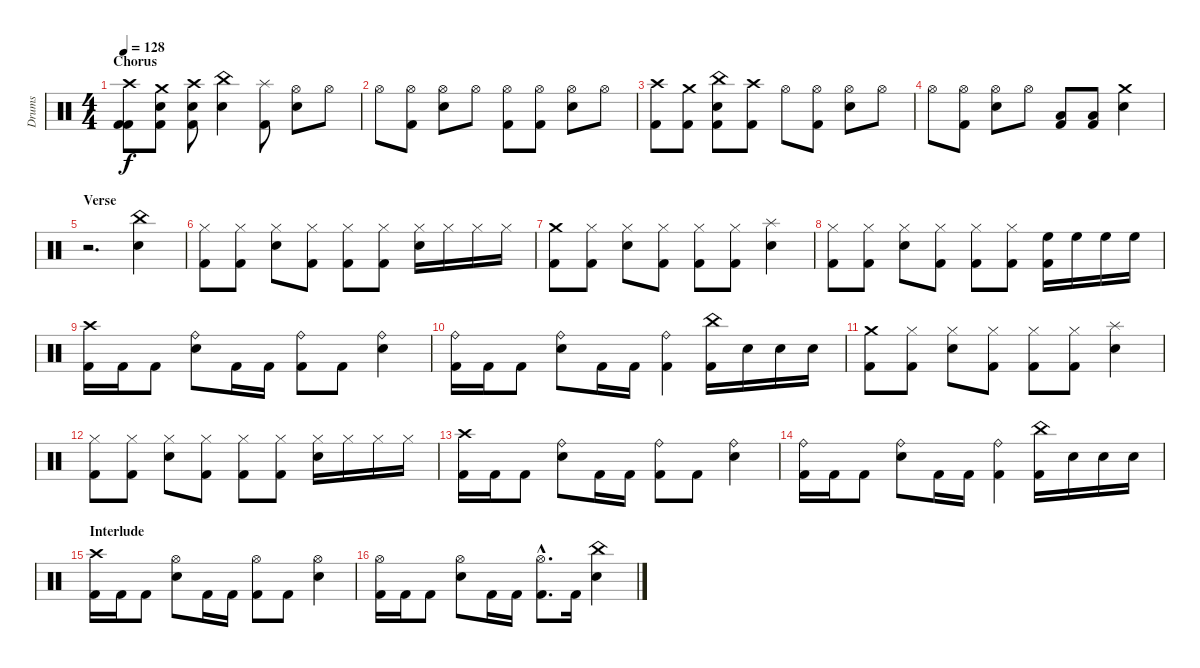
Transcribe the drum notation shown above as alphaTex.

\track ("Drums" "Drums") {instrument percussion}
\staff {score}
\articulation defaults
\ts (4 4)
\section ("" "Chorus")
\tempo 128
\clef neutral
\ks c
("Crash high (hit)" "Kick (hit) 2" "Kick (hit) 2").8{dy f} ("Crash medium (hit)" "Snare (hit) 2" "Kick (hit) 2").8 ("Crash high (hit)" "Snare (hit) 2" "Kick (hit) 2").8 ("China (hit)" "Snare (hit) 2").4 ("Splash (hit)" "Kick (hit) 2").8 ("Hi-Hat (open)" "Snare (hit) 2").8 "Hi-Hat (open)".8 |
"Hi-Hat (open)".8 ("Hi-Hat (open)" "Kick (hit) 2").8 ("Hi-Hat (open)" "Snare (hit) 2").8 "Hi-Hat (open)".8 ("Hi-Hat (open)" "Kick (hit) 2").8 ("Hi-Hat (open)" "Kick (hit) 2").8 ("Hi-Hat (open)" "Snare (hit) 2").8 "Hi-Hat (open)".8 |
("Crash high (hit)" "Kick (hit) 2").8 ("Crash medium (hit)" "Kick (hit) 2").8 ("China (hit)" "Snare (hit) 2" "Kick (hit) 2").8 ("Crash high (hit)" "Kick (hit) 2").8 "Hi-Hat (open)".8 ("Hi-Hat (open)" "Kick (hit) 2").8 ("Hi-Hat (open)" "Snare (hit) 2").8 "Hi-Hat (open)".8 |
"Hi-Hat (open)".8 ("Hi-Hat (open)" "Kick (hit) 2").8 ("Hi-Hat (open)" "Snare (hit) 2").8 "Hi-Hat (open)".8 ("Low Tom (hit)" "Kick (hit) 2").8 ("Low Floor Tom (hit)" "Kick (hit) 2").8 ("Crash medium (hit)" "Snare (hit) 2").4 |
\section ("" "Verse")
r.2{d} ("China (hit)" "Snare (hit) 2").4 |
("Hi-Hat (closed)" "Kick (hit) 2").8 ("Hi-Hat (closed)" "Kick (hit) 2").8 ("Hi-Hat (closed)" "Snare (hit) 2").8 ("Hi-Hat (closed)" "Kick (hit) 2").8 ("Hi-Hat (closed)" "Kick (hit) 2").8 ("Hi-Hat (closed)" "Kick (hit) 2").8 ("Hi-Hat (closed)" "Snare (hit) 2").16 "Hi-Hat (closed)".16 "Hi-Hat (closed)".16 "Hi-Hat (closed)".16 |
("Crash medium (hit)" "Kick (hit) 2").8 ("Hi-Hat (closed)" "Kick (hit) 2").8 ("Hi-Hat (closed)" "Snare (hit) 2").8 ("Hi-Hat (closed)" "Kick (hit) 2").8 ("Hi-Hat (closed)" "Kick (hit) 2").8 ("Hi-Hat (closed)" "Kick (hit) 2").8 ("Splash (hit)" "Snare (hit) 2").4 |
("Hi-Hat (closed)" "Kick (hit) 2").8 ("Hi-Hat (closed)" "Kick (hit) 2").8 ("Hi-Hat (closed)" "Snare (hit) 2").8 ("Hi-Hat (closed)" "Kick (hit) 2").8 ("Hi-Hat (closed)" "Kick (hit) 2").8 ("Hi-Hat (closed)" "Kick (hit) 2").8 ("High Floor Tom (hit)" "Kick (hit) 2").16 "High Floor Tom (hit)".16 "High Floor Tom (hit)".16 "High Floor Tom (hit)".16 |
("Crash high (hit)" "Kick (hit) 2").16 "Kick (hit) 2".16 "Kick (hit) 2".8 ("Ride (bell)" "Snare (hit) 2").8 "Kick (hit) 2".16 "Kick (hit) 2".16 ("Ride (bell)" "Kick (hit) 2").8 "Kick (hit) 2".8 ("Ride (bell)" "Snare (hit) 2").4 |
("Ride (bell)" "Kick (hit) 2").16 "Kick (hit) 2".16 "Kick (hit) 2".8 ("Ride (bell)" "Snare (hit) 2").8 "Kick (hit) 2".16 "Kick (hit) 2".16 ("Ride (bell)" "Kick (hit) 2").4 ("China (hit)" "Kick (hit) 2").16 "Snare (hit) 2".16 "Snare (hit) 2".16 "Snare (hit) 2".16 |
("Crash medium (hit)" "Kick (hit) 2").8 ("Hi-Hat (closed)" "Kick (hit) 2").8 ("Hi-Hat (closed)" "Snare (hit) 2").8 ("Hi-Hat (closed)" "Kick (hit) 2").8 ("Hi-Hat (closed)" "Kick (hit) 2").8 ("Hi-Hat (closed)" "Kick (hit) 2").8 ("Splash (hit)" "Snare (hit) 2").4 |
("Hi-Hat (closed)" "Kick (hit) 2").8 ("Hi-Hat (closed)" "Kick (hit) 2").8 ("Hi-Hat (closed)" "Snare (hit) 2").8 ("Hi-Hat (closed)" "Kick (hit) 2").8 ("Hi-Hat (closed)" "Kick (hit) 2").8 ("Hi-Hat (closed)" "Kick (hit) 2").8 ("Hi-Hat (closed)" "Snare (hit) 2").16 "Hi-Hat (closed)".16 "Hi-Hat (closed)".16 "Hi-Hat (closed)".16 |
("Crash high (hit)" "Kick (hit) 2").16 "Kick (hit) 2".16 "Kick (hit) 2".8 ("Ride (bell)" "Snare (hit) 2").8 "Kick (hit) 2".16 "Kick (hit) 2".16 ("Ride (bell)" "Kick (hit) 2").8 "Kick (hit) 2".8 ("Ride (bell)" "Snare (hit) 2").4 |
("Ride (bell)" "Kick (hit) 2").16 "Kick (hit) 2".16 "Kick (hit) 2".8 ("Ride (bell)" "Snare (hit) 2").8 "Kick (hit) 2".16 "Kick (hit) 2".16 ("Ride (bell)" "Kick (hit) 2").4 ("China (hit)" "Kick (hit) 2").16 "Snare (hit) 2".16 "Snare (hit) 2".16 "Snare (hit) 2".16 |
\section ("" "Interlude")
("Crash high (hit)" "Kick (hit) 2").16 "Kick (hit) 2".16 "Kick (hit) 2".8 ("Hi-Hat (open)" "Snare (hit) 2").8 "Kick (hit) 2".16 "Kick (hit) 2".16 ("Hi-Hat (open)" "Kick (hit) 2").8 "Kick (hit) 2".8 ("Hi-Hat (open)" "Snare (hit) 2").4 |
("Hi-Hat (open)" "Kick (hit) 2").16 "Kick (hit) 2".16 "Kick (hit) 2".8 ("Hi-Hat (open)" "Snare (hit) 2").8 "Kick (hit) 2".16 "Kick (hit) 2".16 ("Hi-Hat (open)"{hac} "Kick (hit) 2"{hac}).8{d} "Kick (hit) 2".16 ("China (hit)" "Snare (hit) 2").4
